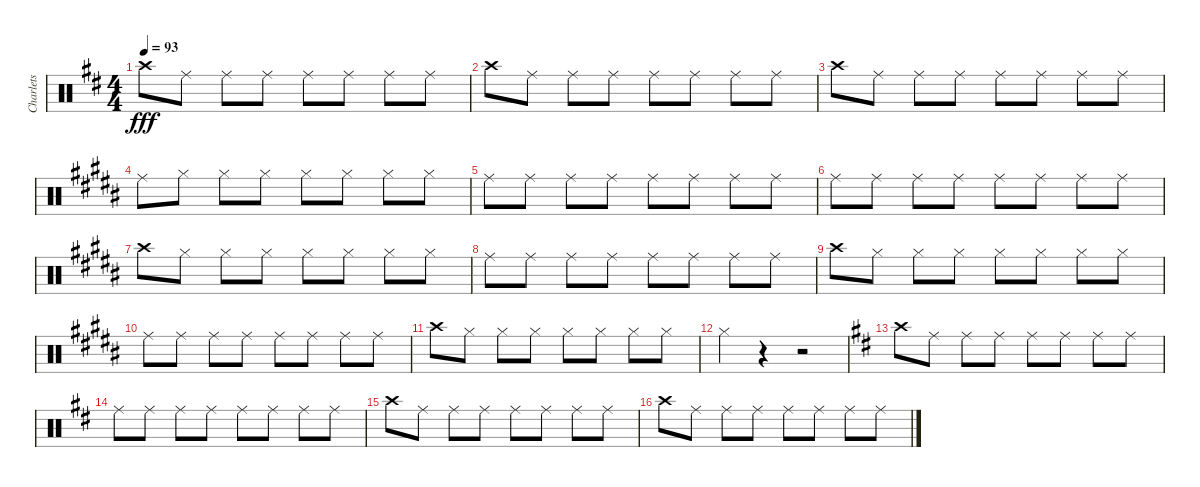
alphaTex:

\track ("Charlets" "Charlets") {instrument percussion}
\staff {score}
\articulation defaults
\ts (4 4)
\tempo 93
\clef neutral
\ks d "Crash high (hit)".8{dy fff} "Ride (middle)".8 "Ride (middle)".8 "Ride (middle)".8 "Ride (middle)".8 "Ride (middle)".8 "Ride (middle)".8 "Ride (middle)".8
|
"Crash high (hit)".8 "Ride (middle)".8 "Ride (middle)".8 "Ride (middle)".8 "Ride (middle)".8 "Ride (middle)".8 "Ride (middle)".8 "Ride (middle)".8 |
"Crash high (hit)".8 "Ride (middle)".8 "Ride (middle)".8 "Ride (middle)".8 "Ride (middle)".8 "Ride (middle)".8 "Ride (middle)".8 "Ride (middle)".8 |
\ks b "Ride (middle)".8 "Hi-Hat (closed)".8 "Hi-Hat (closed)".8 "Hi-Hat (closed)".8 "Hi-Hat (closed)".8 "Hi-Hat (closed)".8 "Hi-Hat (closed)".8 "Hi-Hat (closed)".8
|
"Ride (middle)".8 "Ride (middle)".8 "Ride (middle)".8 "Ride (middle)".8 "Ride (middle)".8 "Ride (middle)".8 "Ride (middle)".8 "Ride (middle)".8 |
"Ride (middle)".8 "Ride (middle)".8 "Ride (middle)".8 "Ride (middle)".8 "Ride (middle)".8 "Ride (middle)".8 "Ride (middle)".8 "Ride (middle)".8 |
"Crash high (hit)".8 "Hi-Hat (closed)".8 "Hi-Hat (closed)".8 "Hi-Hat (closed)".8 "Hi-Hat (closed)".8 "Hi-Hat (closed)".8 "Hi-Hat (closed)".8 "Hi-Hat (closed)".8 |
"Ride (middle)".8 "Ride (middle)".8 "Ride (middle)".8 "Ride (middle)".8 "Ride (middle)".8 "Ride (middle)".8 "Ride (middle)".8 "Ride (middle)".8 |
"Crash high (hit)".8 "Hi-Hat (closed)".8 "Hi-Hat (closed)".8 "Hi-Hat (closed)".8 "Hi-Hat (closed)".8 "Hi-Hat (closed)".8 "Hi-Hat (closed)".8 "Hi-Hat (closed)".8 |
"Ride (middle)".8 "Ride (middle)".8 "Ride (middle)".8 "Ride (middle)".8 "Ride (middle)".8 "Ride (middle)".8 "Ride (middle)".8 "Ride (middle)".8 |
"Crash high (hit)".8 "Hi-Hat (closed)".8 "Hi-Hat (closed)".8 "Hi-Hat (closed)".8 "Hi-Hat (closed)".8 "Hi-Hat (closed)".8 "Hi-Hat (closed)".8 "Hi-Hat (closed)".8 |
"Hi-Hat (closed)".4 r.4 r.2 |
\ks d "Crash high (hit)".8 "Ride (middle)".8 "Ride (middle)".8 "Ride (middle)".8 "Ride (middle)".8 "Ride (middle)".8 "Ride (middle)".8 "Ride (middle)".8
|
"Ride (middle)".8 "Ride (middle)".8 "Ride (middle)".8 "Ride (middle)".8 "Ride (middle)".8 "Ride (middle)".8 "Ride (middle)".8 "Ride (middle)".8 |
"Crash high (hit)".8 "Ride (middle)".8 "Ride (middle)".8 "Ride (middle)".8 "Ride (middle)".8 "Ride (middle)".8 "Ride (middle)".8 "Ride (middle)".8 |
"Crash high (hit)".8 "Ride (middle)".8 "Ride (middle)".8 "Ride (middle)".8 "Ride (middle)".8 "Ride (middle)".8 "Ride (middle)".8 "Ride (middle)".8
